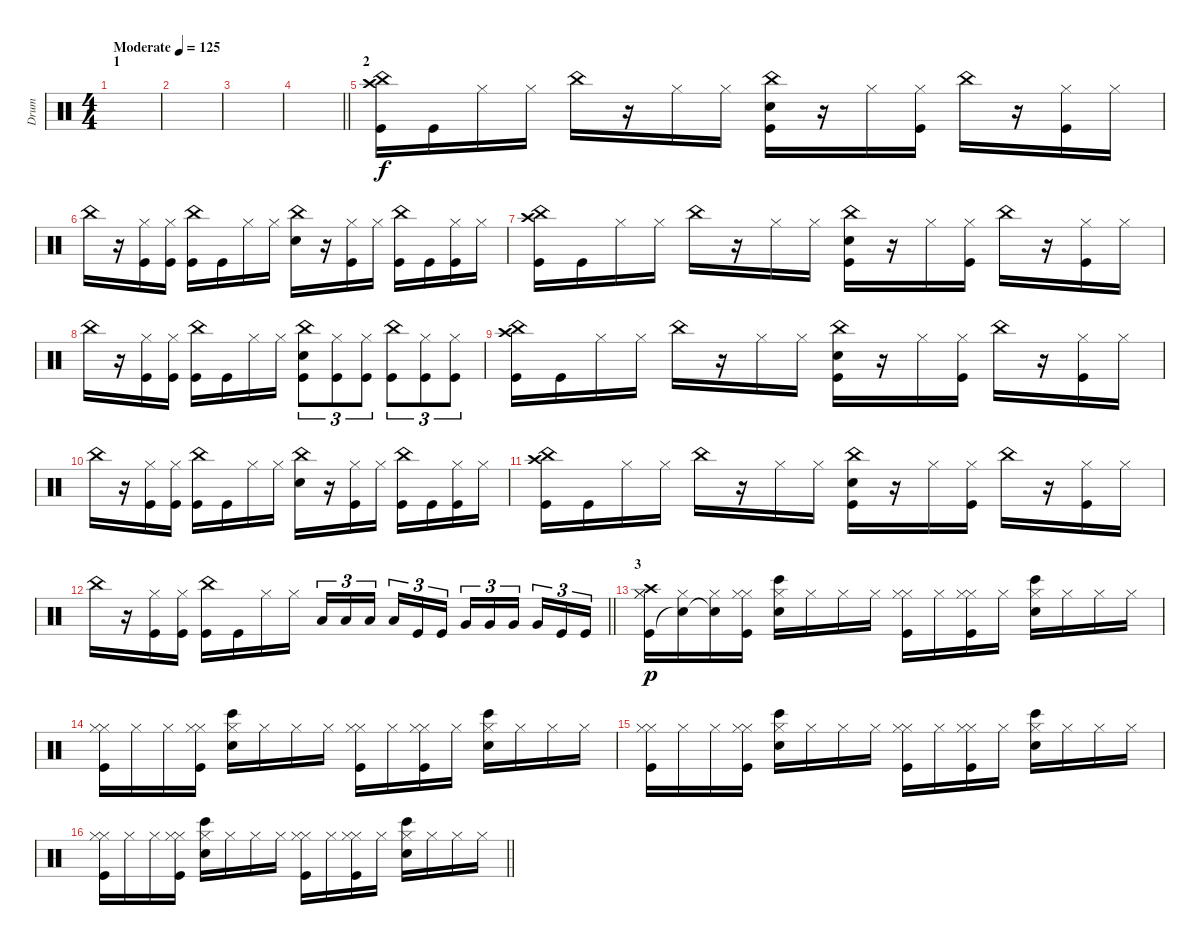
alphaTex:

\track ("Drum" "Drum") {instrument percussion}
\staff {score}
\articulation defaults
\ts (4 4)
\section ("" "1")
\tempo (125 "Moderate")
\clef neutral
\ks c
|
|
|
\barLineRight lightlight
|
\section ("" "2")
("Kick (hit)" "Crash high (hit)" "China (hit)").16 "Kick (hit)".16 "Hi-Hat (closed)".16 "Hi-Hat (closed)".16 "China (hit)".16 r.16 "Hi-Hat (closed)".16 "Hi-Hat (closed)".16 ("Kick (hit)" "Snare (hit) 2" "China (hit)").16 r.16 "Hi-Hat (closed)".16 ("Kick (hit)" "Hi-Hat (closed)").16 "China (hit)".16 r.16 ("Kick (hit)" "Hi-Hat (closed)").16 "Hi-Hat (closed)".16 |
"China (hit)".16 r.16 ("Kick (hit)" "Hi-Hat (closed)").16 ("Kick (hit)" "Hi-Hat (closed)").16 ("Kick (hit)" "China (hit)").16 "Kick (hit)".16 "Hi-Hat (closed)".16 "Hi-Hat (closed)".16 ("Snare (hit) 2" "China (hit)").16 r.16 ("Kick (hit)" "Hi-Hat (closed)").16 "Hi-Hat (closed)".16 ("Kick (hit)" "China (hit)").16 "Kick (hit)".16 ("Kick (hit)" "Hi-Hat (closed)").16 "Hi-Hat (closed)".16 |
("Kick (hit)" "Crash high (hit)" "China (hit)").16 "Kick (hit)".16 "Hi-Hat (closed)".16 "Hi-Hat (closed)".16 "China (hit)".16 r.16 "Hi-Hat (closed)".16 "Hi-Hat (closed)".16 ("Kick (hit)" "Snare (hit) 2" "China (hit)").16 r.16 "Hi-Hat (closed)".16 ("Kick (hit)" "Hi-Hat (closed)").16 "China (hit)".16 r.16 ("Kick (hit)" "Hi-Hat (closed)").16 "Hi-Hat (closed)".16 |
"China (hit)".16 r.16 ("Kick (hit)" "Hi-Hat (closed)").16 ("Kick (hit)" "Hi-Hat (closed)").16 ("Kick (hit)" "China (hit)").16 "Kick (hit)".16 "Hi-Hat (closed)".16 "Hi-Hat (closed)".16 ("Kick (hit)" "Snare (hit) 2" "China (hit)").8{tu (3 2)} ("Kick (hit)" "Hi-Hat (closed)").8{tu (3 2)} ("Kick (hit)" "Hi-Hat (closed)").8{tu (3 2)} ("Kick (hit)" "China (hit)").8{tu (3 2)} ("Kick (hit)" "Hi-Hat (closed)").8{tu (3 2)} ("Kick (hit)" "Hi-Hat (closed)").8{tu (3 2)} |
("Kick (hit)" "Crash high (hit)" "China (hit)").16 "Kick (hit)".16 "Hi-Hat (closed)".16 "Hi-Hat (closed)".16 "China (hit)".16 r.16 "Hi-Hat (closed)".16 "Hi-Hat (closed)".16 ("Kick (hit)" "Snare (hit) 2" "China (hit)").16 r.16 "Hi-Hat (closed)".16 ("Kick (hit)" "Hi-Hat (closed)").16 "China (hit)".16 r.16 ("Kick (hit)" "Hi-Hat (closed)").16 "Hi-Hat (closed)".16 |
"China (hit)".16 r.16 ("Kick (hit)" "Hi-Hat (closed)").16 ("Kick (hit)" "Hi-Hat (closed)").16 ("Kick (hit)" "China (hit)").16 "Kick (hit)".16 "Hi-Hat (closed)".16 "Hi-Hat (closed)".16 ("Snare (hit) 2" "China (hit)").16 r.16 ("Kick (hit)" "Hi-Hat (closed)").16 "Hi-Hat (closed)".16 ("Kick (hit)" "China (hit)").16 "Kick (hit)".16 ("Kick (hit)" "Hi-Hat (closed)").16 "Hi-Hat (closed)".16 |
("Kick (hit)" "Crash high (hit)" "China (hit)").16 "Kick (hit)".16 "Hi-Hat (closed)".16 "Hi-Hat (closed)".16 "China (hit)".16 r.16 "Hi-Hat (closed)".16 "Hi-Hat (closed)".16 ("Kick (hit)" "Snare (hit) 2" "China (hit)").16 r.16 "Hi-Hat (closed)".16 ("Kick (hit)" "Hi-Hat (closed)").16 "China (hit)".16 r.16 ("Kick (hit)" "Hi-Hat (closed)").16 "Hi-Hat (closed)".16 |
\barLineRight lightlight "China (hit)".16
r.16 ("Kick (hit)" "Hi-Hat (closed)").16 ("Kick (hit)" "Hi-Hat (closed)").16 ("Kick (hit)" "China (hit)").16 "Kick (hit)".16 "Hi-Hat (closed)".16 "Hi-Hat (closed)".16 "Low Tom (hit)".16{tu (3 2)} "Low Tom (hit)".16{tu (3 2)} "Low Tom (hit)".16{tu (3 2) beam splitsecondary} "Low Tom (hit)".16{tu (3 2)} "Kick (hit)".16{tu (3 2)} "Kick (hit)".16{tu (3 2)} "Very Low Tom (hit)".16{tu (3 2)} "Very Low Tom (hit)".16{tu (3 2)} "Very Low Tom (hit)".16{tu (3 2) beam splitsecondary} "Very Low Tom (hit)".16{tu (3 2)} "Kick (hit)".16{tu (3 2)} "Kick (hit)".16{tu (3 2)} |
\section ("" "3")
("Hi-Hat (closed)" "Kick (hit)" "Hi-Hat (closed)" "Crash high (hit)").16{dy p} ("Hi-Hat (closed)" "Snare (hit)"{t}).16 ("Hi-Hat (closed)" "Snare (hit)"{t}).16 ("Hi-Hat (closed)" "Kick (hit)" "Hi-Hat (closed)").16 ("Snare (hit) 2" "Bongo High (hit)" "Hi-Hat (closed)").16 "Hi-Hat (closed)".16 "Hi-Hat (closed)".16 "Hi-Hat (closed)".16 ("Hi-Hat (closed)" "Kick (hit)" "Hi-Hat (closed)").16 "Hi-Hat (closed)".16 ("Hi-Hat (closed)" "Kick (hit)" "Hi-Hat (closed)").16 "Hi-Hat (closed)".16 ("Snare (hit) 2" "Bongo High (hit)" "Hi-Hat (closed)").16 "Hi-Hat (closed)".16 "Hi-Hat (closed)".16 "Hi-Hat (closed)".16 |
("Hi-Hat (closed)" "Kick (hit)" "Hi-Hat (closed)").16 "Hi-Hat (closed)".16 "Hi-Hat (closed)".16 ("Hi-Hat (closed)" "Kick (hit)" "Hi-Hat (closed)").16 ("Snare (hit) 2" "Bongo High (hit)" "Hi-Hat (closed)").16 "Hi-Hat (closed)".16 "Hi-Hat (closed)".16 "Hi-Hat (closed)".16 ("Hi-Hat (closed)" "Kick (hit)" "Hi-Hat (closed)").16 "Hi-Hat (closed)".16 ("Hi-Hat (closed)" "Kick (hit)" "Hi-Hat (closed)").16 "Hi-Hat (closed)".16 ("Snare (hit) 2" "Bongo High (hit)" "Hi-Hat (closed)").16 "Hi-Hat (closed)".16 "Hi-Hat (closed)".16 "Hi-Hat (closed)".16 |
("Hi-Hat (closed)" "Kick (hit)" "Hi-Hat (closed)").16 "Hi-Hat (closed)".16 "Hi-Hat (closed)".16 ("Hi-Hat (closed)" "Kick (hit)" "Hi-Hat (closed)").16 ("Snare (hit) 2" "Bongo High (hit)" "Hi-Hat (closed)").16 "Hi-Hat (closed)".16 "Hi-Hat (closed)".16 "Hi-Hat (closed)".16 ("Hi-Hat (closed)" "Kick (hit)" "Hi-Hat (closed)").16 "Hi-Hat (closed)".16 ("Hi-Hat (closed)" "Kick (hit)" "Hi-Hat (closed)").16 "Hi-Hat (closed)".16 ("Snare (hit) 2" "Bongo High (hit)" "Hi-Hat (closed)").16 "Hi-Hat (closed)".16 "Hi-Hat (closed)".16 "Hi-Hat (closed)".16 |
\barLineRight lightlight
("Hi-Hat (closed)" "Kick (hit)" "Hi-Hat (closed)").16 "Hi-Hat (closed)".16 "Hi-Hat (closed)".16 ("Hi-Hat (closed)" "Kick (hit)" "Hi-Hat (closed)").16 ("Snare (hit) 2" "Bongo High (hit)" "Hi-Hat (closed)").16 "Hi-Hat (closed)".16 "Hi-Hat (closed)".16 "Hi-Hat (closed)".16 ("Hi-Hat (closed)" "Kick (hit)" "Hi-Hat (closed)").16 "Hi-Hat (closed)".16 ("Hi-Hat (closed)" "Kick (hit)" "Hi-Hat (closed)").16 "Hi-Hat (closed)".16 ("Snare (hit) 2" "Bongo High (hit)" "Hi-Hat (closed)").16 "Hi-Hat (closed)".16 "Hi-Hat (closed)".16 "Hi-Hat (closed)".16
